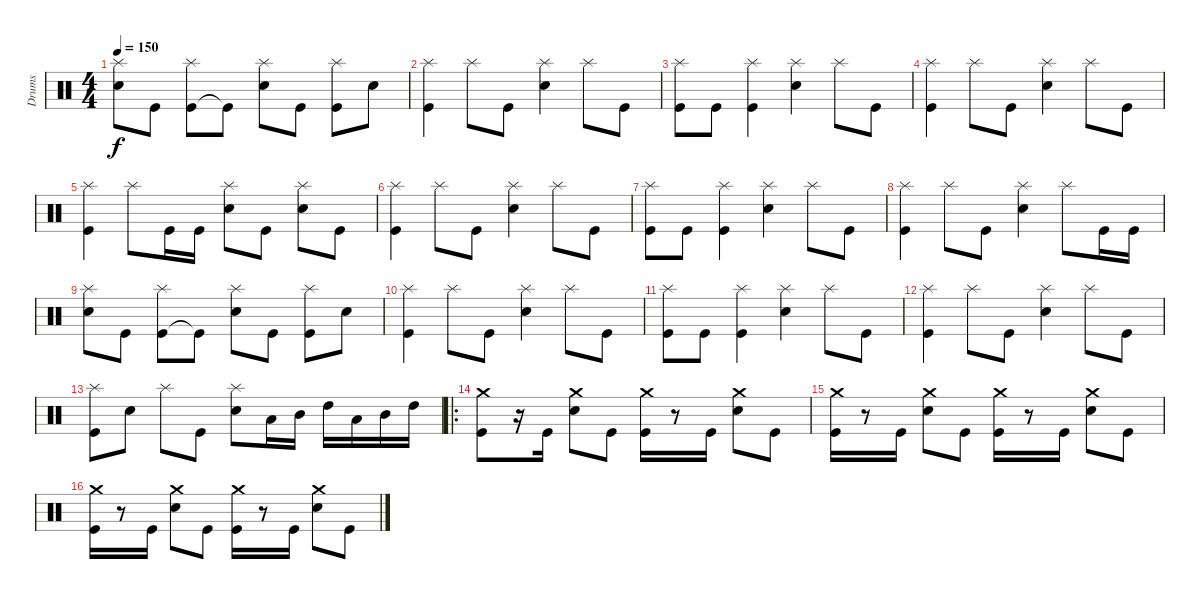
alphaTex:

\track ("Drums" "Drums") {instrument percussion}
\staff {score}
\articulation defaults
\ts (4 4)
\tempo 150
\clef neutral
\ks c
("Electric Snare (hit)" "Splash (hit)").8{dy f} "Kick (hit)".8 ("Kick (hit)" "Splash (hit)").8 "Kick (hit)"{t}.8 ("Electric Snare (hit)" "Splash (hit)").8 "Kick (hit)".8 ("Kick (hit)" "Splash (hit)").8 "Electric Snare (hit)".8 |
("Kick (hit)" "Splash (hit)").4 "Splash (hit)".8 "Kick (hit)".8 ("Electric Snare (hit)" "Splash (hit)").4 "Splash (hit)".8 "Kick (hit)".8 |
("Kick (hit)" "Splash (hit)").8 "Kick (hit)".8 ("Kick (hit)" "Splash (hit)").4 ("Electric Snare (hit)" "Splash (hit)").4 "Splash (hit)".8 "Kick (hit)".8 |
("Kick (hit)" "Splash (hit)").4 "Splash (hit)".8 "Kick (hit)".8 ("Electric Snare (hit)" "Splash (hit)").4 "Splash (hit)".8 "Kick (hit)".8 |
("Kick (hit)" "Splash (hit)").4 "Splash (hit)".8 "Kick (hit)".16 "Kick (hit)".16 ("Electric Snare (hit)" "Splash (hit)").8 "Kick (hit)".8 ("Electric Snare (hit)" "Splash (hit)").8 "Kick (hit)".8 |
("Kick (hit)" "Splash (hit)").4 "Splash (hit)".8 "Kick (hit)".8 ("Electric Snare (hit)" "Splash (hit)").4 "Splash (hit)".8 "Kick (hit)".8 |
("Kick (hit)" "Splash (hit)").8 "Kick (hit)".8 ("Kick (hit)" "Splash (hit)").4 ("Electric Snare (hit)" "Splash (hit)").4 "Splash (hit)".8 "Kick (hit)".8 |
("Kick (hit)" "Splash (hit)").4 "Splash (hit)".8 "Kick (hit)".8 ("Electric Snare (hit)" "Splash (hit)").4 "Splash (hit)".8 "Kick (hit)".16 "Kick (hit)".16 |
("Electric Snare (hit)" "Splash (hit)").8 "Kick (hit)".8 ("Kick (hit)" "Splash (hit)").8 "Kick (hit)"{t}.8 ("Electric Snare (hit)" "Splash (hit)").8 "Kick (hit)".8 ("Kick (hit)" "Splash (hit)").8 "Electric Snare (hit)".8 |
("Kick (hit)" "Splash (hit)").4 "Splash (hit)".8 "Kick (hit)".8 ("Electric Snare (hit)" "Splash (hit)").4 "Splash (hit)".8 "Kick (hit)".8 |
("Kick (hit)" "Splash (hit)").8 "Kick (hit)".8 ("Kick (hit)" "Splash (hit)").4 ("Electric Snare (hit)" "Splash (hit)").4 "Splash (hit)".8 "Kick (hit)".8 |
("Kick (hit)" "Splash (hit)").4 "Splash (hit)".8 "Kick (hit)".8 ("Electric Snare (hit)" "Splash (hit)").4 "Splash (hit)".8 "Kick (hit)".8 |
("Kick (hit)" "Splash (hit)").8 "Electric Snare (hit)".8 "Splash (hit)".8 "Kick (hit)".8 ("Electric Snare (hit)" "Splash (hit)").8 "Low Tom (hit)".16 "Mid Tom (hit)".16 "High Tom (hit)".16 "Low Tom (hit)".16 "Mid Tom (hit)".16 "High Tom (hit)".16 |
\ro
("Kick (hit)" "Crash medium (hit)").8 r.16 "Kick (hit)".16 ("Electric Snare (hit)" "Crash medium (hit)").8 "Kick (hit)".8 ("Kick (hit)" "Crash medium (hit)").16 r.8 "Kick (hit)".16 ("Electric Snare (hit)" "Crash medium (hit)").8 "Kick (hit)".8 |
("Kick (hit)" "Crash medium (hit)").16 r.8 "Kick (hit)".16 ("Electric Snare (hit)" "Crash medium (hit)").8 "Kick (hit)".8 ("Kick (hit)" "Crash medium (hit)").16 r.8 "Kick (hit)".16 ("Electric Snare (hit)" "Crash medium (hit)").8 "Kick (hit)".8 |
("Kick (hit)" "Crash medium (hit)").16 r.8 "Kick (hit)".16 ("Electric Snare (hit)" "Crash medium (hit)").8 "Kick (hit)".8 ("Kick (hit)" "Crash medium (hit)").16 r.8 "Kick (hit)".16 ("Electric Snare (hit)" "Crash medium (hit)").8 "Kick (hit)".8
